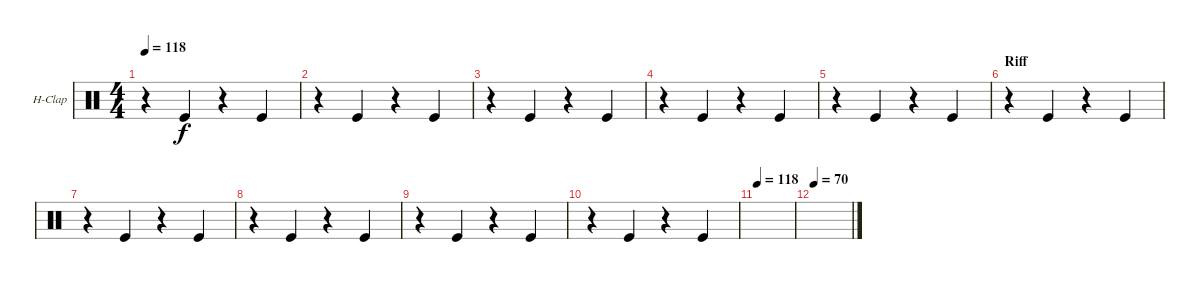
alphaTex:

\bracketExtendMode groupsimilarinstruments
\firstSystemTrackNameOrientation horizontal
\otherSystemsTrackNameOrientation horizontal
\track ("Hand Clap" "H-Clap") {instrument percussion}
\staff {score}
\articulation defaults
\ts (4 4)
\tempo 118
\clef neutral
\ks c
r.4{dy f} "Kick (hit)".4 r.4 "Kick (hit)".4 |
r.4 "Kick (hit)".4 r.4 "Kick (hit)".4 |
r.4 "Kick (hit)".4 r.4 "Kick (hit)".4 |
r.4 "Kick (hit)".4 r.4 "Kick (hit)".4 |
r.4 "Kick (hit)".4 r.4 "Kick (hit)".4 |
\section ("" "Riff")
r.4 "Kick (hit)".4 r.4 "Kick (hit)".4 |
r.4 "Kick (hit)".4 r.4 "Kick (hit)".4 |
r.4 "Kick (hit)".4 r.4 "Kick (hit)".4 |
r.4 "Kick (hit)".4 r.4 "Kick (hit)".4 |
r.4 "Kick (hit)".4 r.4 "Kick (hit)".4 |
\tempo 118
|
\tempo 70
